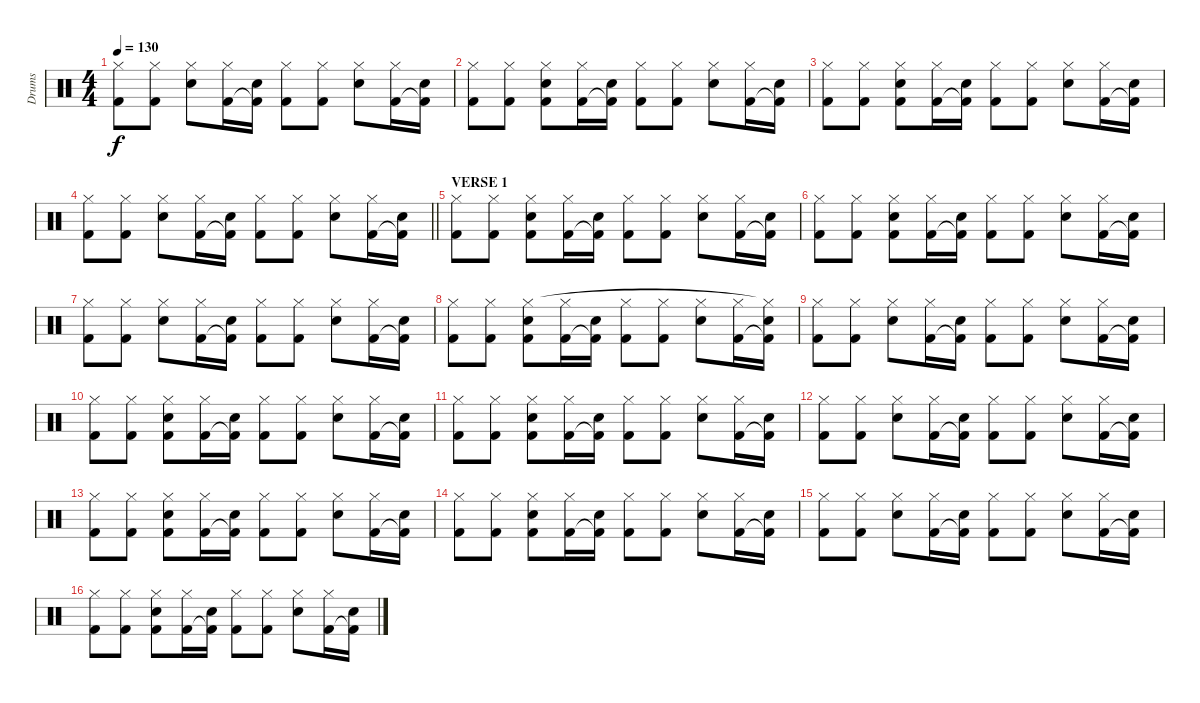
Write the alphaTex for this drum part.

\track ("Drums" "Drums") {instrument percussion}
\staff {score}
\articulation defaults
\ts (4 4)
\tempo 130
\clef neutral
\ks c
("Kick (hit) 2" "Hi-Hat (closed)").8{dy f} ("Kick (hit) 2" "Hi-Hat (closed)").8 ("Electric Snare (hit)" "Hi-Hat (closed)").8 ("Kick (hit) 2" "Hi-Hat (closed)").16 ("Kick (hit) 2"{t} "Electric Snare (hit)").16 ("Kick (hit) 2" "Hi-Hat (closed)").8 ("Kick (hit) 2" "Hi-Hat (closed)").8 ("Electric Snare (hit)" "Hi-Hat (closed)").8 ("Kick (hit) 2" "Hi-Hat (closed)").16 ("Kick (hit) 2"{t} "Electric Snare (hit)").16 |
("Kick (hit) 2" "Hi-Hat (closed)").8 ("Kick (hit) 2" "Hi-Hat (closed)").8 ("Kick (hit) 2" "Electric Snare (hit)" "Hi-Hat (closed)").8 ("Kick (hit) 2" "Hi-Hat (closed)").16 ("Kick (hit) 2"{t} "Electric Snare (hit)").16 ("Kick (hit) 2" "Hi-Hat (closed)").8 ("Kick (hit) 2" "Hi-Hat (closed)").8 ("Electric Snare (hit)" "Hi-Hat (closed)").8 ("Kick (hit) 2" "Hi-Hat (closed)").16 ("Kick (hit) 2"{t} "Electric Snare (hit)").16 |
("Kick (hit) 2" "Hi-Hat (closed)").8 ("Kick (hit) 2" "Hi-Hat (closed)").8 ("Kick (hit) 2" "Electric Snare (hit)" "Hi-Hat (closed)").8 ("Kick (hit) 2" "Hi-Hat (closed)").16 ("Kick (hit) 2"{t} "Electric Snare (hit)").16 ("Kick (hit) 2" "Hi-Hat (closed)").8 ("Kick (hit) 2" "Hi-Hat (closed)").8 ("Electric Snare (hit)" "Hi-Hat (closed)").8 ("Kick (hit) 2" "Hi-Hat (closed)").16 ("Kick (hit) 2"{t} "Electric Snare (hit)").16 |
\barLineRight lightlight
("Kick (hit) 2" "Hi-Hat (closed)").8 ("Kick (hit) 2" "Hi-Hat (closed)").8 ("Electric Snare (hit)" "Hi-Hat (closed)").8 ("Kick (hit) 2" "Hi-Hat (closed)").16 ("Kick (hit) 2"{t} "Electric Snare (hit)").16 ("Kick (hit) 2" "Hi-Hat (closed)").8 ("Kick (hit) 2" "Hi-Hat (closed)").8 ("Electric Snare (hit)" "Hi-Hat (closed)").8 ("Kick (hit) 2" "Hi-Hat (closed)").16 ("Kick (hit) 2"{t} "Electric Snare (hit)").16 |
\section ("" "VERSE 1")
("Kick (hit) 2" "Hi-Hat (closed)").8 ("Kick (hit) 2" "Hi-Hat (closed)").8 ("Kick (hit) 2" "Electric Snare (hit)" "Hi-Hat (closed)").8 ("Kick (hit) 2" "Hi-Hat (closed)").16 ("Kick (hit) 2"{t} "Electric Snare (hit)").16 ("Kick (hit) 2" "Hi-Hat (closed)").8 ("Kick (hit) 2" "Hi-Hat (closed)").8 ("Electric Snare (hit)" "Hi-Hat (closed)").8 ("Kick (hit) 2" "Hi-Hat (closed)").16 ("Kick (hit) 2"{t} "Electric Snare (hit)").16 |
("Kick (hit) 2" "Hi-Hat (closed)").8 ("Kick (hit) 2" "Hi-Hat (closed)").8 ("Kick (hit) 2" "Electric Snare (hit)" "Hi-Hat (closed)").8 ("Kick (hit) 2" "Hi-Hat (closed)").16 ("Kick (hit) 2"{t} "Electric Snare (hit)").16 ("Kick (hit) 2" "Hi-Hat (closed)").8 ("Kick (hit) 2" "Hi-Hat (closed)").8 ("Electric Snare (hit)" "Hi-Hat (closed)").8 ("Kick (hit) 2" "Hi-Hat (closed)").16 ("Kick (hit) 2"{t} "Electric Snare (hit)").16 |
("Kick (hit) 2" "Hi-Hat (closed)").8 ("Kick (hit) 2" "Hi-Hat (closed)").8 ("Electric Snare (hit)" "Hi-Hat (closed)").8 ("Kick (hit) 2" "Hi-Hat (closed)").16 ("Kick (hit) 2"{t} "Electric Snare (hit)").16 ("Kick (hit) 2" "Hi-Hat (closed)").8 ("Kick (hit) 2" "Hi-Hat (closed)").8 ("Electric Snare (hit)" "Hi-Hat (closed)").8 ("Kick (hit) 2" "Hi-Hat (closed)").16 ("Kick (hit) 2"{t} "Electric Snare (hit)").16 |
("Kick (hit) 2" "Hi-Hat (closed)").8 ("Kick (hit) 2" "Hi-Hat (closed)").8 ("Kick (hit) 2" "Electric Snare (hit)" "Hi-Hat (closed)").8 ("Kick (hit) 2" "Hi-Hat (closed)").16 ("Kick (hit) 2"{t} "Electric Snare (hit)").16 ("Kick (hit) 2" "Hi-Hat (closed)").8 ("Kick (hit) 2" "Hi-Hat (closed)").8 ("Electric Snare (hit)" "Hi-Hat (closed)").8 ("Kick (hit) 2" "Hi-Hat (closed)").16 ("Kick (hit) 2"{t} "Electric Snare (hit)" "Hi-Hat (closed)"{t}).16 |
("Kick (hit) 2" "Hi-Hat (closed)").8 ("Kick (hit) 2" "Hi-Hat (closed)").8 ("Electric Snare (hit)" "Hi-Hat (closed)").8 ("Kick (hit) 2" "Hi-Hat (closed)").16 ("Kick (hit) 2"{t} "Electric Snare (hit)").16 ("Kick (hit) 2" "Hi-Hat (closed)").8 ("Kick (hit) 2" "Hi-Hat (closed)").8 ("Electric Snare (hit)" "Hi-Hat (closed)").8 ("Kick (hit) 2" "Hi-Hat (closed)").16 ("Kick (hit) 2"{t} "Electric Snare (hit)").16 |
("Kick (hit) 2" "Hi-Hat (closed)").8 ("Kick (hit) 2" "Hi-Hat (closed)").8 ("Kick (hit) 2" "Electric Snare (hit)" "Hi-Hat (closed)").8 ("Kick (hit) 2" "Hi-Hat (closed)").16 ("Kick (hit) 2"{t} "Electric Snare (hit)").16 ("Kick (hit) 2" "Hi-Hat (closed)").8 ("Kick (hit) 2" "Hi-Hat (closed)").8 ("Electric Snare (hit)" "Hi-Hat (closed)").8 ("Kick (hit) 2" "Hi-Hat (closed)").16 ("Kick (hit) 2"{t} "Electric Snare (hit)").16 |
("Kick (hit) 2" "Hi-Hat (closed)").8 ("Kick (hit) 2" "Hi-Hat (closed)").8 ("Kick (hit) 2" "Electric Snare (hit)" "Hi-Hat (closed)").8 ("Kick (hit) 2" "Hi-Hat (closed)").16 ("Kick (hit) 2"{t} "Electric Snare (hit)").16 ("Kick (hit) 2" "Hi-Hat (closed)").8 ("Kick (hit) 2" "Hi-Hat (closed)").8 ("Electric Snare (hit)" "Hi-Hat (closed)").8 ("Kick (hit) 2" "Hi-Hat (closed)").16 ("Kick (hit) 2"{t} "Electric Snare (hit)").16 |
("Kick (hit) 2" "Hi-Hat (closed)").8 ("Kick (hit) 2" "Hi-Hat (closed)").8 ("Electric Snare (hit)" "Hi-Hat (closed)").8 ("Kick (hit) 2" "Hi-Hat (closed)").16 ("Kick (hit) 2"{t} "Electric Snare (hit)").16 ("Kick (hit) 2" "Hi-Hat (closed)").8 ("Kick (hit) 2" "Hi-Hat (closed)").8 ("Electric Snare (hit)" "Hi-Hat (closed)").8 ("Kick (hit) 2" "Hi-Hat (closed)").16 ("Kick (hit) 2"{t} "Electric Snare (hit)").16 |
("Kick (hit) 2" "Hi-Hat (closed)").8 ("Kick (hit) 2" "Hi-Hat (closed)").8 ("Kick (hit) 2" "Electric Snare (hit)" "Hi-Hat (closed)").8 ("Kick (hit) 2" "Hi-Hat (closed)").16 ("Kick (hit) 2"{t} "Electric Snare (hit)").16 ("Kick (hit) 2" "Hi-Hat (closed)").8 ("Kick (hit) 2" "Hi-Hat (closed)").8 ("Electric Snare (hit)" "Hi-Hat (closed)").8 ("Kick (hit) 2" "Hi-Hat (closed)").16 ("Kick (hit) 2"{t} "Electric Snare (hit)").16 |
("Kick (hit) 2" "Hi-Hat (closed)").8 ("Kick (hit) 2" "Hi-Hat (closed)").8 ("Kick (hit) 2" "Electric Snare (hit)" "Hi-Hat (closed)").8 ("Kick (hit) 2" "Hi-Hat (closed)").16 ("Kick (hit) 2"{t} "Electric Snare (hit)").16 ("Kick (hit) 2" "Hi-Hat (closed)").8 ("Kick (hit) 2" "Hi-Hat (closed)").8 ("Electric Snare (hit)" "Hi-Hat (closed)").8 ("Kick (hit) 2" "Hi-Hat (closed)").16 ("Kick (hit) 2"{t} "Electric Snare (hit)").16 |
("Kick (hit) 2" "Hi-Hat (closed)").8 ("Kick (hit) 2" "Hi-Hat (closed)").8 ("Electric Snare (hit)" "Hi-Hat (closed)").8 ("Kick (hit) 2" "Hi-Hat (closed)").16 ("Kick (hit) 2"{t} "Electric Snare (hit)").16 ("Kick (hit) 2" "Hi-Hat (closed)").8 ("Kick (hit) 2" "Hi-Hat (closed)").8 ("Electric Snare (hit)" "Hi-Hat (closed)").8 ("Kick (hit) 2" "Hi-Hat (closed)").16 ("Kick (hit) 2"{t} "Electric Snare (hit)").16 |
("Kick (hit) 2" "Hi-Hat (closed)").8 ("Kick (hit) 2" "Hi-Hat (closed)").8 ("Kick (hit) 2" "Electric Snare (hit)" "Hi-Hat (closed)").8 ("Kick (hit) 2" "Hi-Hat (closed)").16 ("Kick (hit) 2"{t} "Electric Snare (hit)").16 ("Kick (hit) 2" "Hi-Hat (closed)").8 ("Kick (hit) 2" "Hi-Hat (closed)").8 ("Electric Snare (hit)" "Hi-Hat (closed)").8 ("Kick (hit) 2" "Hi-Hat (closed)").16 ("Kick (hit) 2"{t} "Electric Snare (hit)").16
